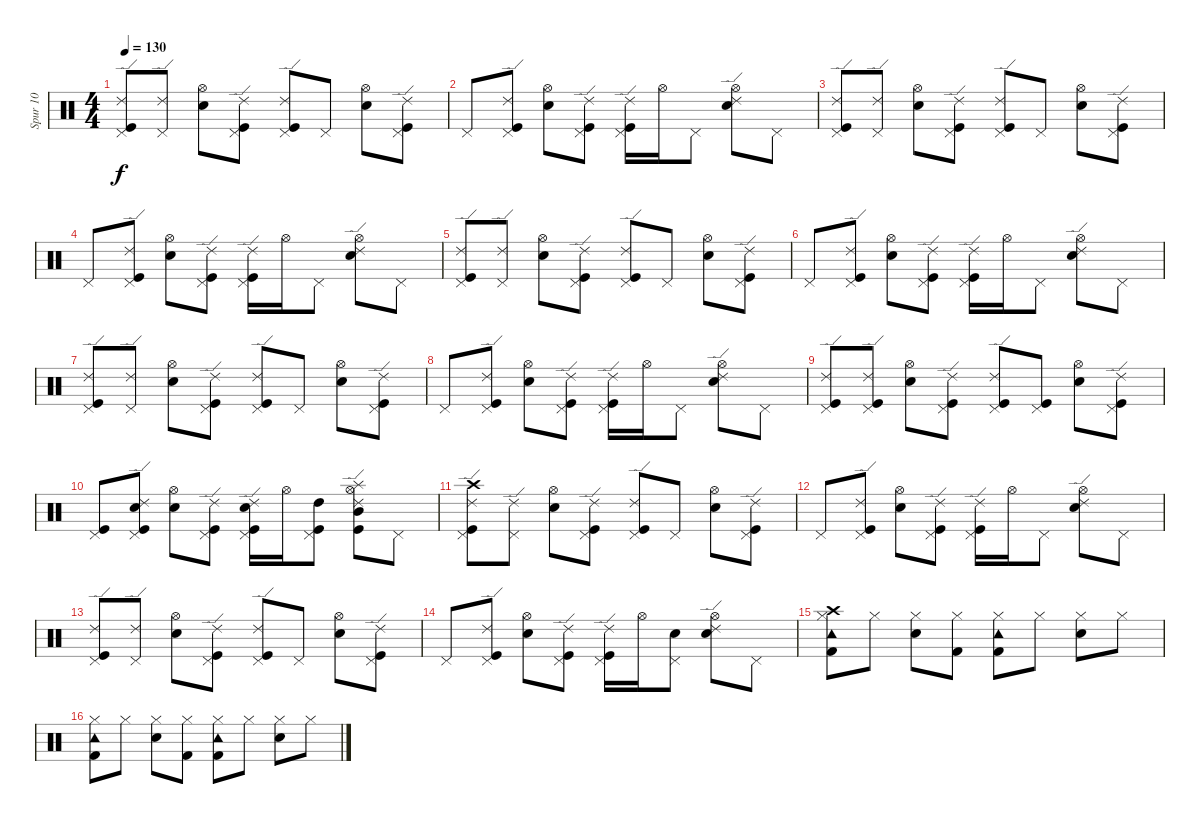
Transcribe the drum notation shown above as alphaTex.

\track ("Spur 10" "Spur 10") {instrument percussion}
\staff {score}
\articulation defaults
\ts (4 4)
\tempo 130
\clef neutral
\ks c
("Kick (hit)" "Pedal Hi-Hat (hit)" "Ride (edge) 2").8{dy f} ("Pedal Hi-Hat (hit)" "Ride (edge) 2").8 ("Electric Snare (hit)" "Hi-Hat (open)").8 ("Kick (hit)" "Pedal Hi-Hat (hit)" "Ride (edge) 2").8 ("Kick (hit)" "Pedal Hi-Hat (hit)" "Ride (edge) 2").8 "Pedal Hi-Hat (hit)".8 ("Electric Snare (hit)" "Hi-Hat (open)").8 ("Kick (hit)" "Pedal Hi-Hat (hit)" "Ride (edge) 2").8 |
"Pedal Hi-Hat (hit)".8 ("Kick (hit)" "Pedal Hi-Hat (hit)" "Ride (edge) 2").8 ("Electric Snare (hit)" "Hi-Hat (open)").8 ("Kick (hit)" "Pedal Hi-Hat (hit)" "Ride (edge) 2").8 ("Kick (hit)" "Pedal Hi-Hat (hit)" "Ride (edge) 2").16 "Hi-Hat (open)".16 "Pedal Hi-Hat (hit)".8 ("Electric Snare (hit)" "Hi-Hat (open)" "Ride (edge) 2").8 "Pedal Hi-Hat (hit)".8 |
("Kick (hit)" "Pedal Hi-Hat (hit)" "Ride (edge) 2").8 ("Pedal Hi-Hat (hit)" "Ride (edge) 2").8 ("Electric Snare (hit)" "Hi-Hat (open)").8 ("Kick (hit)" "Pedal Hi-Hat (hit)" "Ride (edge) 2").8 ("Kick (hit)" "Pedal Hi-Hat (hit)" "Ride (edge) 2").8 "Pedal Hi-Hat (hit)".8 ("Electric Snare (hit)" "Hi-Hat (open)").8 ("Kick (hit)" "Pedal Hi-Hat (hit)" "Ride (edge) 2").8 |
"Pedal Hi-Hat (hit)".8 ("Kick (hit)" "Pedal Hi-Hat (hit)" "Ride (edge) 2").8 ("Electric Snare (hit)" "Hi-Hat (open)").8 ("Kick (hit)" "Pedal Hi-Hat (hit)" "Ride (edge) 2").8 ("Kick (hit)" "Pedal Hi-Hat (hit)" "Ride (edge) 2").16 "Hi-Hat (open)".16 "Pedal Hi-Hat (hit)".8 ("Electric Snare (hit)" "Hi-Hat (open)" "Ride (edge) 2").8 "Pedal Hi-Hat (hit)".8 |
("Kick (hit)" "Pedal Hi-Hat (hit)" "Ride (edge) 2").8 ("Pedal Hi-Hat (hit)" "Ride (edge) 2").8 ("Electric Snare (hit)" "Hi-Hat (open)").8 ("Kick (hit)" "Pedal Hi-Hat (hit)" "Ride (edge) 2").8 ("Kick (hit)" "Pedal Hi-Hat (hit)" "Ride (edge) 2").8 "Pedal Hi-Hat (hit)".8 ("Electric Snare (hit)" "Hi-Hat (open)").8 ("Kick (hit)" "Pedal Hi-Hat (hit)" "Ride (edge) 2").8 |
"Pedal Hi-Hat (hit)".8 ("Kick (hit)" "Pedal Hi-Hat (hit)" "Ride (edge) 2").8 ("Electric Snare (hit)" "Hi-Hat (open)").8 ("Kick (hit)" "Pedal Hi-Hat (hit)" "Ride (edge) 2").8 ("Kick (hit)" "Pedal Hi-Hat (hit)" "Ride (edge) 2").16 "Hi-Hat (open)".16 "Pedal Hi-Hat (hit)".8 ("Electric Snare (hit)" "Hi-Hat (open)" "Ride (edge) 2").8 "Pedal Hi-Hat (hit)".8 |
("Kick (hit)" "Pedal Hi-Hat (hit)" "Ride (edge) 2").8 ("Pedal Hi-Hat (hit)" "Ride (edge) 2").8 ("Electric Snare (hit)" "Hi-Hat (open)").8 ("Kick (hit)" "Pedal Hi-Hat (hit)" "Ride (edge) 2").8 ("Kick (hit)" "Pedal Hi-Hat (hit)" "Ride (edge) 2").8 "Pedal Hi-Hat (hit)".8 ("Electric Snare (hit)" "Hi-Hat (open)").8 ("Kick (hit)" "Pedal Hi-Hat (hit)" "Ride (edge) 2").8 |
"Pedal Hi-Hat (hit)".8 ("Kick (hit)" "Pedal Hi-Hat (hit)" "Ride (edge) 2").8 ("Electric Snare (hit)" "Hi-Hat (open)").8 ("Kick (hit)" "Pedal Hi-Hat (hit)" "Ride (edge) 2").8 ("Kick (hit)" "Pedal Hi-Hat (hit)" "Ride (edge) 2").16 "Hi-Hat (open)".16 "Pedal Hi-Hat (hit)".8 ("Electric Snare (hit)" "Hi-Hat (open)" "Ride (edge) 2").8 "Pedal Hi-Hat (hit)".8 |
("Kick (hit)" "Pedal Hi-Hat (hit)" "Ride (edge) 2").8 ("Kick (hit)" "Pedal Hi-Hat (hit)" "Ride (edge) 2").8 ("Electric Snare (hit)" "Hi-Hat (open)").8 ("Kick (hit)" "Pedal Hi-Hat (hit)" "Ride (edge) 2").8 ("Kick (hit)" "Pedal Hi-Hat (hit)" "Ride (edge) 2").8 ("Kick (hit)" "Pedal Hi-Hat (hit)").8 ("Electric Snare (hit)" "Hi-Hat (open)").8 ("Kick (hit)" "Pedal Hi-Hat (hit)" "Ride (edge) 2").8 |
("Kick (hit)" "Pedal Hi-Hat (hit)").8 ("Electric Snare (hit)" "Kick (hit)" "Pedal Hi-Hat (hit)" "Ride (edge) 2").8 ("Electric Snare (hit)" "Hi-Hat (open)").8 ("Kick (hit)" "Pedal Hi-Hat (hit)" "Ride (edge) 2").8 ("Kick (hit)" "Electric Snare (hit)" "Pedal Hi-Hat (hit)" "Ride (edge) 2").16 "Hi-Hat (open)".16 ("Kick (hit)" "High Tom (hit)" "Pedal Hi-Hat (hit)").8 ("Kick (hit)" "Mid Tom (hit)" "Splash (hit)" "Hi-Hat (open)" "Ride (edge) 2").8 "Pedal Hi-Hat (hit)".8 |
("Crash high (hit)" "Kick (hit)" "Pedal Hi-Hat (hit)" "Ride (edge) 2").8 ("Pedal Hi-Hat (hit)" "Ride (edge) 2").8 ("Electric Snare (hit)" "Hi-Hat (open)").8 ("Kick (hit)" "Pedal Hi-Hat (hit)" "Ride (edge) 2").8 ("Kick (hit)" "Pedal Hi-Hat (hit)" "Ride (edge) 2").8 "Pedal Hi-Hat (hit)".8 ("Electric Snare (hit)" "Hi-Hat (open)").8 ("Kick (hit)" "Pedal Hi-Hat (hit)" "Ride (edge) 2").8 |
"Pedal Hi-Hat (hit)".8 ("Kick (hit)" "Pedal Hi-Hat (hit)" "Ride (edge) 2").8 ("Electric Snare (hit)" "Hi-Hat (open)").8 ("Kick (hit)" "Pedal Hi-Hat (hit)" "Ride (edge) 2").8 ("Kick (hit)" "Pedal Hi-Hat (hit)" "Ride (edge) 2").16 "Hi-Hat (open)".16 "Pedal Hi-Hat (hit)".8 ("Electric Snare (hit)" "Hi-Hat (open)" "Ride (edge) 2").8 "Pedal Hi-Hat (hit)".8 |
("Kick (hit)" "Pedal Hi-Hat (hit)" "Ride (edge) 2").8 ("Pedal Hi-Hat (hit)" "Ride (edge) 2").8 ("Electric Snare (hit)" "Hi-Hat (open)").8 ("Kick (hit)" "Pedal Hi-Hat (hit)" "Ride (edge) 2").8 ("Kick (hit)" "Pedal Hi-Hat (hit)" "Ride (edge) 2").8 "Pedal Hi-Hat (hit)".8 ("Electric Snare (hit)" "Hi-Hat (open)").8 ("Kick (hit)" "Pedal Hi-Hat (hit)" "Ride (edge) 2").8 |
"Pedal Hi-Hat (hit)".8 ("Kick (hit)" "Pedal Hi-Hat (hit)" "Ride (edge) 2").8 ("Electric Snare (hit)" "Hi-Hat (open)").8 ("Kick (hit)" "Pedal Hi-Hat (hit)" "Ride (edge) 2").8 ("Kick (hit)" "Pedal Hi-Hat (hit)" "Ride (edge) 2").16 "Hi-Hat (open)".16 ("Electric Snare (hit)" "Pedal Hi-Hat (hit)").8 ("Electric Snare (hit)" "Hi-Hat (open)" "Ride (edge) 2").8 "Pedal Hi-Hat (hit)".8 |
("Crash high (hit)" "Tambourine (hit)" "Hi-Hat (closed)" "Kick (hit) 2").8 "Hi-Hat (closed)".8 ("Hi-Hat (closed)" "Electric Snare (hit)").8 ("Hi-Hat (closed)" "Kick (hit) 2").8 ("Tambourine (hit)" "Hi-Hat (closed)" "Kick (hit) 2").8 "Hi-Hat (closed)".8 ("Hi-Hat (closed)" "Electric Snare (hit)").8 "Hi-Hat (closed)".8 |
("Hi-Hat (closed)" "Tambourine (hit)" "Kick (hit) 2").8 "Hi-Hat (closed)".8 ("Hi-Hat (closed)" "Electric Snare (hit)").8 ("Hi-Hat (closed)" "Kick (hit) 2").8 ("Tambourine (hit)" "Hi-Hat (closed)" "Kick (hit) 2").8 "Hi-Hat (closed)".8 ("Hi-Hat (closed)" "Electric Snare (hit)").8 "Hi-Hat (closed)".8
